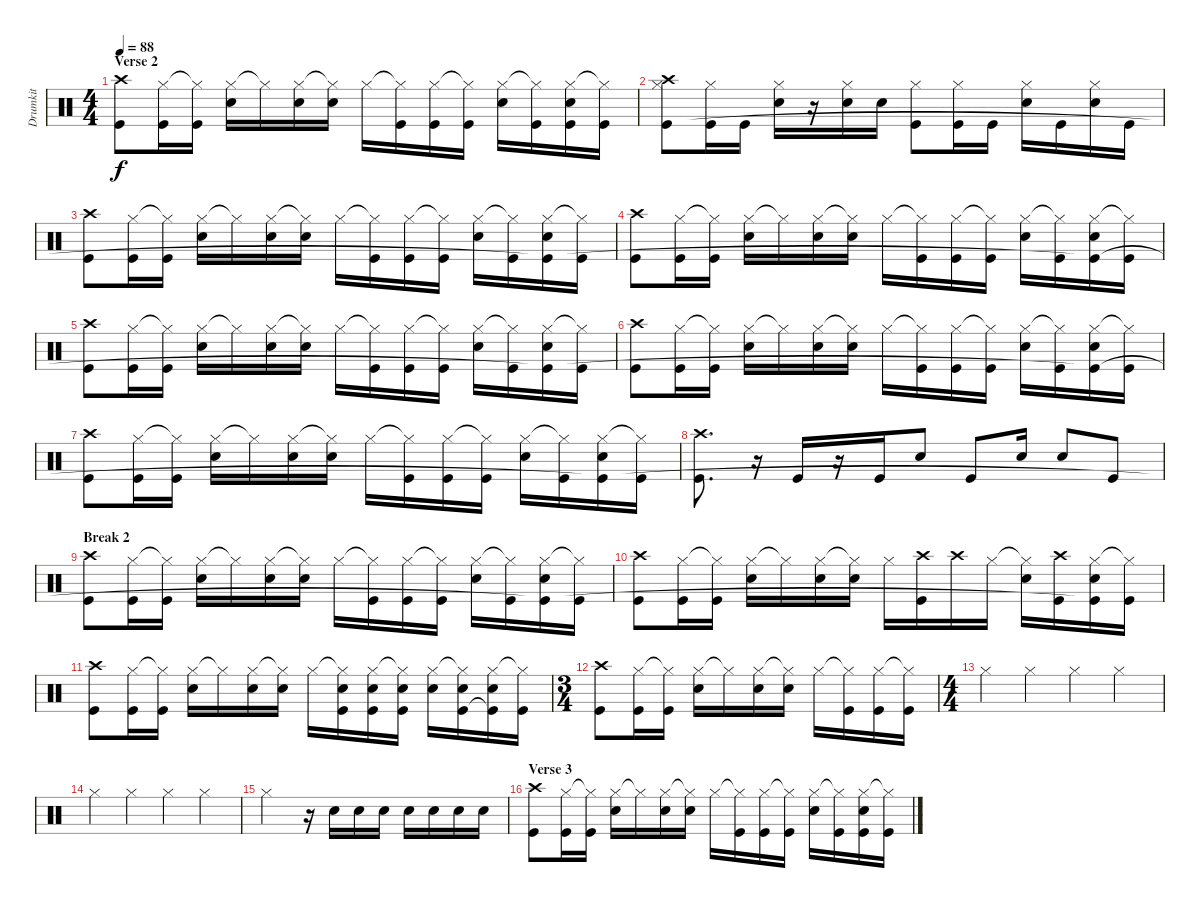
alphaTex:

\track ("Drumkit" "Drumkit") {instrument percussion}
\staff {score}
\articulation defaults
\ts (4 4)
\section ("" "Verse 2")
\tempo 88
\clef neutral
\ks c
("Crash high (hit)" "Kick (hit)").8{dy f} ("Hi-Hat (closed)" "Kick (hit)").16 ("Hi-Hat (closed)"{t} "Kick (hit)").16 ("Hi-Hat (closed)" "Snare (hit) 2").16 "Hi-Hat (closed)"{t}.16 ("Hi-Hat (closed)" "Snare (hit) 2").16 ("Hi-Hat (closed)"{t} "Snare (hit) 2").16 "Hi-Hat (closed)".16 ("Hi-Hat (closed)"{t} "Kick (hit)").16 ("Hi-Hat (closed)" "Kick (hit)").16 ("Hi-Hat (closed)"{t} "Kick (hit)").16 ("Hi-Hat (closed)" "Snare (hit) 2").16 ("Hi-Hat (closed)"{t} "Kick (hit)").16 ("Hi-Hat (closed)" "Snare (hit) 2" "Kick (hit)").16 ("Hi-Hat (closed)"{t} "Kick (hit)").16 |
("Hi-Hat (closed)" "Crash high (hit)" "Kick (hit)").8 ("Hi-Hat (closed)" "Kick (hit)").16 "Kick (hit)".16 ("Hi-Hat (closed)" "Snare (hit) 2").16 r.16 ("Hi-Hat (closed)" "Snare (hit) 2").16 "Snare (hit) 2".16 ("Hi-Hat (closed)" "Kick (hit)").8 ("Hi-Hat (closed)" "Kick (hit)").16 "Kick (hit)".16 ("Hi-Hat (closed)" "Snare (hit) 2").16 "Kick (hit)".16 ("Hi-Hat (closed)" "Snare (hit) 2").16 "Kick (hit)".16 |
("Crash high (hit)" "Kick (hit)").8 ("Hi-Hat (closed)" "Kick (hit)").16 ("Hi-Hat (closed)"{t} "Kick (hit)").16 ("Hi-Hat (closed)" "Snare (hit) 2").16 "Hi-Hat (closed)"{t}.16 ("Hi-Hat (closed)" "Snare (hit) 2").16 ("Hi-Hat (closed)"{t} "Snare (hit) 2").16 "Hi-Hat (closed)".16 ("Hi-Hat (closed)"{t} "Kick (hit)").16 ("Hi-Hat (closed)" "Kick (hit)").16 ("Hi-Hat (closed)"{t} "Kick (hit)").16 ("Hi-Hat (closed)" "Snare (hit) 2").16 ("Hi-Hat (closed)"{t} "Kick (hit)").16 ("Hi-Hat (closed)" "Snare (hit) 2" "Kick (hit)"{t}).16 ("Hi-Hat (closed)"{t} "Kick (hit)").16 |
("Crash high (hit)" "Kick (hit)").8 ("Hi-Hat (closed)" "Kick (hit)").16 ("Hi-Hat (closed)"{t} "Kick (hit)").16 ("Hi-Hat (closed)" "Snare (hit) 2").16 "Hi-Hat (closed)"{t}.16 ("Hi-Hat (closed)" "Snare (hit) 2").16 ("Hi-Hat (closed)"{t} "Snare (hit) 2").16 "Hi-Hat (closed)".16 ("Hi-Hat (closed)"{t} "Kick (hit)").16 ("Hi-Hat (closed)" "Kick (hit)").16 ("Hi-Hat (closed)"{t} "Kick (hit)").16 ("Hi-Hat (closed)" "Snare (hit) 2").16 ("Hi-Hat (closed)"{t} "Kick (hit)").16 ("Hi-Hat (closed)" "Snare (hit) 2" "Kick (hit)"{t}).16 ("Hi-Hat (closed)"{t} "Kick (hit)").16 |
("Crash high (hit)" "Kick (hit)").8 ("Hi-Hat (closed)" "Kick (hit)").16 ("Hi-Hat (closed)"{t} "Kick (hit)").16 ("Hi-Hat (closed)" "Snare (hit) 2").16 "Hi-Hat (closed)"{t}.16 ("Hi-Hat (closed)" "Snare (hit) 2").16 ("Hi-Hat (closed)"{t} "Snare (hit) 2").16 "Hi-Hat (closed)".16 ("Hi-Hat (closed)"{t} "Kick (hit)").16 ("Hi-Hat (closed)" "Kick (hit)").16 ("Hi-Hat (closed)"{t} "Kick (hit)").16 ("Hi-Hat (closed)" "Snare (hit) 2").16 ("Hi-Hat (closed)"{t} "Kick (hit)").16 ("Hi-Hat (closed)" "Snare (hit) 2" "Kick (hit)"{t}).16 ("Hi-Hat (closed)"{t} "Kick (hit)").16 |
("Crash high (hit)" "Kick (hit)").8 ("Hi-Hat (closed)" "Kick (hit)").16 ("Hi-Hat (closed)"{t} "Kick (hit)").16 ("Hi-Hat (closed)" "Snare (hit) 2").16 "Hi-Hat (closed)"{t}.16 ("Hi-Hat (closed)" "Snare (hit) 2").16 ("Hi-Hat (closed)"{t} "Snare (hit) 2").16 "Hi-Hat (closed)".16 ("Hi-Hat (closed)"{t} "Kick (hit)").16 ("Hi-Hat (closed)" "Kick (hit)").16 ("Hi-Hat (closed)"{t} "Kick (hit)").16 ("Hi-Hat (closed)" "Snare (hit) 2").16 ("Hi-Hat (closed)"{t} "Kick (hit)").16 ("Hi-Hat (closed)" "Snare (hit) 2" "Kick (hit)"{t}).16 ("Hi-Hat (closed)"{t} "Kick (hit)").16 |
("Crash high (hit)" "Kick (hit)").8 ("Hi-Hat (closed)" "Kick (hit)").16 ("Hi-Hat (closed)"{t} "Kick (hit)").16 ("Hi-Hat (closed)" "Snare (hit) 2").16 "Hi-Hat (closed)"{t}.16 ("Hi-Hat (closed)" "Snare (hit) 2").16 ("Hi-Hat (closed)"{t} "Snare (hit) 2").16 "Hi-Hat (closed)".16 ("Hi-Hat (closed)"{t} "Kick (hit)").16 ("Hi-Hat (closed)" "Kick (hit)").16 ("Hi-Hat (closed)"{t} "Kick (hit)").16 ("Hi-Hat (closed)" "Snare (hit) 2").16 ("Hi-Hat (closed)"{t} "Kick (hit)").16 ("Hi-Hat (closed)" "Snare (hit) 2" "Kick (hit)"{t}).16 ("Hi-Hat (closed)"{t} "Kick (hit)").16 |
("Crash high (hit)" "Kick (hit)").8{d} r.16 "Kick (hit)".16 r.16 "Kick (hit)".16 "Snare (hit) 2".8 "Kick (hit)".8 "Snare (hit) 2".16 "Snare (hit) 2".8 "Kick (hit)".8 |
\section ("" "Break 2")
("Crash high (hit)" "Kick (hit)").8 ("Hi-Hat (closed)" "Kick (hit)").16 ("Hi-Hat (closed)"{t} "Kick (hit)").16 ("Hi-Hat (closed)" "Snare (hit) 2").16 "Hi-Hat (closed)"{t}.16 ("Hi-Hat (closed)" "Snare (hit) 2").16 ("Hi-Hat (closed)"{t} "Snare (hit) 2").16 "Hi-Hat (closed)".16 ("Hi-Hat (closed)"{t} "Kick (hit)").16 ("Hi-Hat (closed)" "Kick (hit)").16 ("Hi-Hat (closed)"{t} "Kick (hit)").16 ("Hi-Hat (closed)" "Snare (hit) 2").16 ("Hi-Hat (closed)"{t} "Kick (hit)").16 ("Hi-Hat (closed)" "Snare (hit) 2" "Kick (hit)"{t}).16 ("Hi-Hat (closed)"{t} "Kick (hit)").16 |
("Crash high (hit)" "Kick (hit)").8 ("Hi-Hat (closed)" "Kick (hit)").16 ("Hi-Hat (closed)"{t} "Kick (hit)").16 ("Hi-Hat (closed)" "Snare (hit) 2").16 "Hi-Hat (closed)"{t}.16 ("Hi-Hat (closed)" "Snare (hit) 2").16 ("Hi-Hat (closed)"{t} "Snare (hit) 2").16 "Hi-Hat (closed)".16 ("Crash high (hit)" "Kick (hit)").16 "Crash high (hit)".16 "Hi-Hat (closed)".16 ("Hi-Hat (closed)"{t} "Snare (hit) 2").16 ("Crash high (hit)" "Kick (hit)").16 ("Hi-Hat (closed)" "Snare (hit) 2" "Kick (hit)"{t}).16 ("Hi-Hat (closed)"{t} "Kick (hit)").16 |
("Crash high (hit)" "Kick (hit)").8 ("Hi-Hat (closed)" "Kick (hit)").16 ("Hi-Hat (closed)"{t} "Kick (hit)").16 ("Hi-Hat (closed)" "Snare (hit) 2").16 "Hi-Hat (closed)"{t}.16 ("Hi-Hat (closed)" "Snare (hit) 2").16 ("Hi-Hat (closed)"{t} "Snare (hit) 2").16 "Hi-Hat (closed)".16 ("Hi-Hat (closed)"{t} "Snare (hit) 2" "Kick (hit)").16 ("Hi-Hat (closed)" "Snare (hit) 2" "Kick (hit)").16 ("Hi-Hat (closed)"{t} "Snare (hit) 2" "Kick (hit)").16 ("Hi-Hat (closed)" "Snare (hit) 2").16 ("Hi-Hat (closed)"{t} "Snare (hit) 2" "Kick (hit)").16 ("Hi-Hat (closed)" "Snare (hit) 2" "Kick (hit)"{t}).16 ("Hi-Hat (closed)"{t} "Kick (hit)").16 |
\ts (3 4)
("Crash high (hit)" "Kick (hit)").8 ("Hi-Hat (closed)" "Kick (hit)").16 ("Hi-Hat (closed)"{t} "Kick (hit)").16 ("Hi-Hat (closed)" "Snare (hit) 2").16 "Hi-Hat (closed)"{t}.16 ("Hi-Hat (closed)" "Snare (hit) 2").16 ("Hi-Hat (closed)"{t} "Snare (hit) 2").16 "Hi-Hat (closed)".16 ("Hi-Hat (closed)"{t} "Kick (hit)").16 ("Hi-Hat (closed)" "Kick (hit)").16 ("Hi-Hat (closed)"{t} "Kick (hit)").16 |
\ts (4 4)
"Hi-Hat (closed)".4 "Hi-Hat (closed)".4 "Hi-Hat (closed)".4 "Hi-Hat (closed)".4 |
"Hi-Hat (closed)".4 "Hi-Hat (closed)".4 "Hi-Hat (closed)".4 "Hi-Hat (closed)".4 |
"Hi-Hat (closed)".2 r.16 "Snare (hit) 2".16 "Snare (hit) 2".16 "Snare (hit) 2".16 "Snare (hit) 2".16 "Snare (hit) 2".16 "Snare (hit) 2".16 "Snare (hit) 2".16 |
\section ("" "Verse 3")
("Crash high (hit)" "Kick (hit)").8 ("Hi-Hat (closed)" "Kick (hit)").16 ("Hi-Hat (closed)"{t} "Kick (hit)").16 ("Hi-Hat (closed)" "Snare (hit) 2").16 "Hi-Hat (closed)"{t}.16 ("Hi-Hat (closed)" "Snare (hit) 2").16 ("Hi-Hat (closed)"{t} "Snare (hit) 2").16 "Hi-Hat (closed)".16 ("Hi-Hat (closed)"{t} "Kick (hit)").16 ("Hi-Hat (closed)" "Kick (hit)").16 ("Hi-Hat (closed)"{t} "Kick (hit)").16 ("Hi-Hat (closed)" "Snare (hit) 2").16 ("Hi-Hat (closed)"{t} "Kick (hit)").16 ("Hi-Hat (closed)" "Snare (hit) 2" "Kick (hit)").16 ("Hi-Hat (closed)"{t} "Kick (hit)").16
